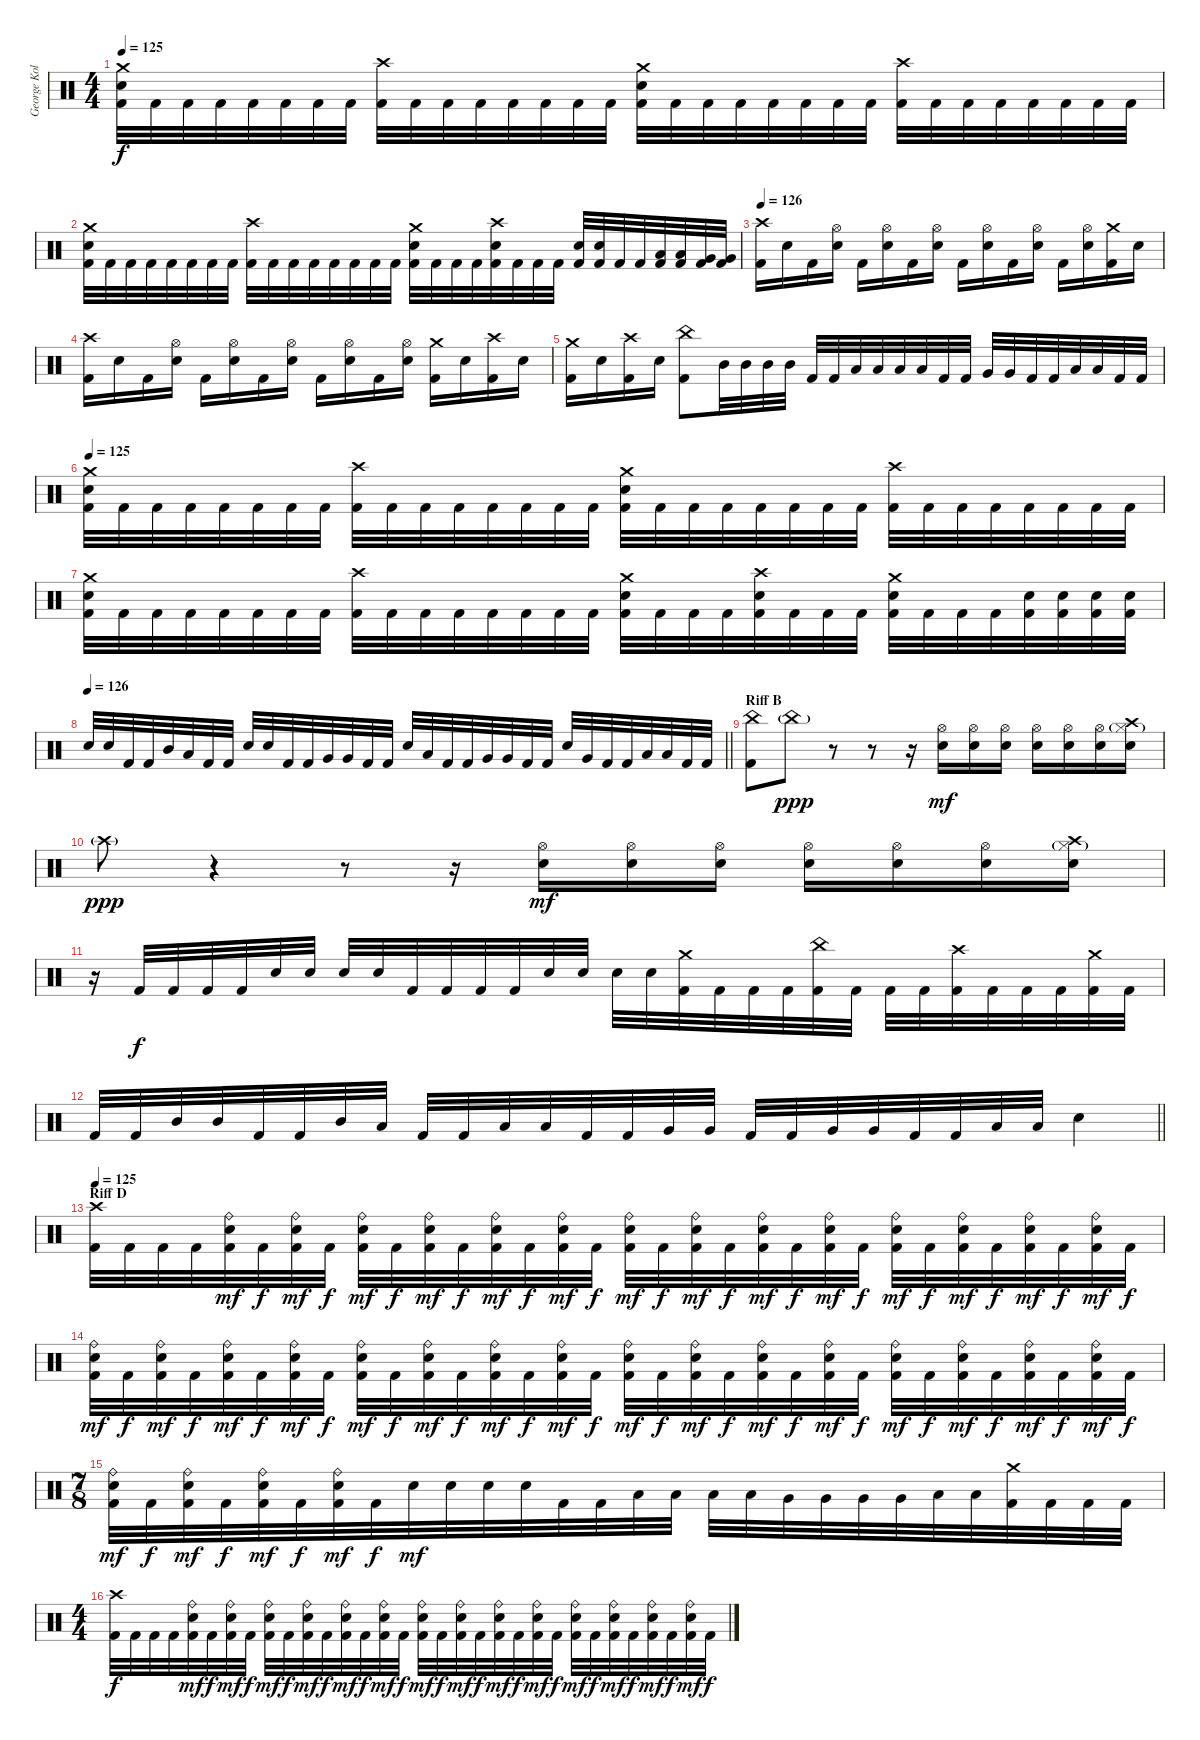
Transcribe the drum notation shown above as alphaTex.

\track ("George Kollias" "George Kol") {instrument percussion}
\staff {score}
\articulation defaults
\ts (4 4)
\tempo 125
\clef neutral
\ks c
("Crash medium (hit)" "Electric Snare (hit)" "Kick (hit) 2").32{dy f} "Kick (hit) 2".32 "Kick (hit) 2".32 "Kick (hit) 2".32 "Kick (hit) 2".32 "Kick (hit) 2".32 "Kick (hit) 2".32 "Kick (hit) 2".32 ("Crash high (hit)" "Kick (hit) 2").32 "Kick (hit) 2".32 "Kick (hit) 2".32 "Kick (hit) 2".32 "Kick (hit) 2".32 "Kick (hit) 2".32 "Kick (hit) 2".32 "Kick (hit) 2".32 ("Crash medium (hit)" "Electric Snare (hit)" "Kick (hit) 2").32 "Kick (hit) 2".32 "Kick (hit) 2".32 "Kick (hit) 2".32 "Kick (hit) 2".32 "Kick (hit) 2".32 "Kick (hit) 2".32 "Kick (hit) 2".32 ("Crash high (hit)" "Kick (hit) 2").32 "Kick (hit) 2".32 "Kick (hit) 2".32 "Kick (hit) 2".32 "Kick (hit) 2".32 "Kick (hit) 2".32 "Kick (hit) 2".32 "Kick (hit) 2".32 |
("Crash medium (hit)" "Electric Snare (hit)" "Kick (hit) 2").32 "Kick (hit) 2".32 "Kick (hit) 2".32 "Kick (hit) 2".32 "Kick (hit) 2".32 "Kick (hit) 2".32 "Kick (hit) 2".32 "Kick (hit) 2".32 ("Crash high (hit)" "Kick (hit) 2").32 "Kick (hit) 2".32 "Kick (hit) 2".32 "Kick (hit) 2".32 "Kick (hit) 2".32 "Kick (hit) 2".32 "Kick (hit) 2".32 "Kick (hit) 2".32 ("Crash medium (hit)" "Electric Snare (hit)" "Kick (hit) 2").32 "Kick (hit) 2".32 "Kick (hit) 2".32 "Kick (hit) 2".32 ("Crash high (hit)" "Electric Snare (hit)" "Kick (hit) 2").32 "Kick (hit) 2".32 "Kick (hit) 2".32 "Kick (hit) 2".32 ("Electric Snare (hit)" "Kick (hit) 2").32 ("Electric Snare (hit)" "Kick (hit) 2").32 "Kick (hit) 2".32 "Kick (hit) 2".32 ("Low Tom (hit)" "Kick (hit) 2").32 ("Low Tom (hit)" "Kick (hit) 2").32 ("Very Low Tom (hit)" "Kick (hit) 2").32 ("Very Low Tom (hit)" "Kick (hit) 2").32 |
\tempo 126
("Crash high (hit)" "Kick (hit) 2").16 "Electric Snare (hit)".16 "Kick (hit) 2".16 ("Hi-Hat (open)" "Electric Snare (hit)").16 "Kick (hit) 2".16 ("Hi-Hat (open)" "Electric Snare (hit)").16 "Kick (hit) 2".16 ("Hi-Hat (open)" "Electric Snare (hit)").16 "Kick (hit) 2".16 ("Hi-Hat (open)" "Electric Snare (hit)").16 "Kick (hit) 2".16 ("Hi-Hat (open)" "Electric Snare (hit)").16 "Kick (hit) 2".16 ("Hi-Hat (open)" "Electric Snare (hit)").16 ("Crash medium (hit)" "Kick (hit) 2").16 "Electric Snare (hit)".16 |
("Crash high (hit)" "Kick (hit) 2").16 "Electric Snare (hit)".16 "Kick (hit) 2".16 ("Hi-Hat (open)" "Electric Snare (hit)").16 "Kick (hit) 2".16 ("Hi-Hat (open)" "Electric Snare (hit)").16 "Kick (hit) 2".16 ("Hi-Hat (open)" "Electric Snare (hit)").16 "Kick (hit) 2".16 ("Hi-Hat (open)" "Electric Snare (hit)").16 "Kick (hit) 2".16 ("Hi-Hat (open)" "Electric Snare (hit)").16 ("Crash medium (hit)" "Kick (hit) 2").16 "Electric Snare (hit)".16 ("Crash high (hit)" "Kick (hit) 2").16 "Electric Snare (hit)".16 |
("Crash medium (hit)" "Kick (hit) 2").16 "Electric Snare (hit)".16 ("Crash high (hit)" "Kick (hit) 2").16 "Electric Snare (hit)".16 ("China (hit)" "Kick (hit) 2").8 "Mid Tom (hit)".32 "Mid Tom (hit)".32 "Mid Tom (hit)".32 "Mid Tom (hit)".32 "Kick (hit) 2".32 "Kick (hit) 2".32 "Low Tom (hit)".32 "Low Tom (hit)".32 "Low Tom (hit)".32 "Low Tom (hit)".32 "Kick (hit) 2".32 "Kick (hit) 2".32 "Very Low Tom (hit)".32 "Very Low Tom (hit)".32 "Kick (hit) 2".32 "Kick (hit) 2".32 "Low Floor Tom (hit)".32 "Low Floor Tom (hit)".32 "Kick (hit) 2".32 "Kick (hit) 2".32 |
\tempo 125
("Crash medium (hit)" "Electric Snare (hit)" "Kick (hit) 2").32 "Kick (hit) 2".32 "Kick (hit) 2".32 "Kick (hit) 2".32 "Kick (hit) 2".32 "Kick (hit) 2".32 "Kick (hit) 2".32 "Kick (hit) 2".32 ("Crash high (hit)" "Kick (hit) 2").32 "Kick (hit) 2".32 "Kick (hit) 2".32 "Kick (hit) 2".32 "Kick (hit) 2".32 "Kick (hit) 2".32 "Kick (hit) 2".32 "Kick (hit) 2".32 ("Crash medium (hit)" "Electric Snare (hit)" "Kick (hit) 2").32 "Kick (hit) 2".32 "Kick (hit) 2".32 "Kick (hit) 2".32 "Kick (hit) 2".32 "Kick (hit) 2".32 "Kick (hit) 2".32 "Kick (hit) 2".32 ("Crash high (hit)" "Kick (hit) 2").32 "Kick (hit) 2".32 "Kick (hit) 2".32 "Kick (hit) 2".32 "Kick (hit) 2".32 "Kick (hit) 2".32 "Kick (hit) 2".32 "Kick (hit) 2".32 |
("Crash medium (hit)" "Electric Snare (hit)" "Kick (hit) 2").32 "Kick (hit) 2".32 "Kick (hit) 2".32 "Kick (hit) 2".32 "Kick (hit) 2".32 "Kick (hit) 2".32 "Kick (hit) 2".32 "Kick (hit) 2".32 ("Crash high (hit)" "Kick (hit) 2").32 "Kick (hit) 2".32 "Kick (hit) 2".32 "Kick (hit) 2".32 "Kick (hit) 2".32 "Kick (hit) 2".32 "Kick (hit) 2".32 "Kick (hit) 2".32 ("Crash medium (hit)" "Electric Snare (hit)" "Kick (hit) 2").32 "Kick (hit) 2".32 "Kick (hit) 2".32 "Kick (hit) 2".32 ("Crash high (hit)" "Electric Snare (hit)" "Kick (hit) 2").32 "Kick (hit) 2".32 "Kick (hit) 2".32 "Kick (hit) 2".32 ("Crash medium (hit)" "Electric Snare (hit)" "Kick (hit) 2").32 "Kick (hit) 2".32 "Kick (hit) 2".32 "Kick (hit) 2".32 ("Electric Snare (hit)" "Kick (hit) 2").32 ("Electric Snare (hit)" "Kick (hit) 2").32 ("Electric Snare (hit)" "Kick (hit) 2").32 ("Electric Snare (hit)" "Kick (hit) 2").32 |
\tempo 126
\barLineRight lightlight "Electric Snare (hit)".32 "Electric Snare (hit)".32 "Kick (hit) 2".32 "Kick (hit) 2".32 "Mid Tom (hit)".32 "Low Tom (hit)".32 "Kick (hit) 2".32 "Kick (hit) 2".32 "Electric Snare (hit)".32 "Electric Snare (hit)".32 "Kick (hit) 2".32 "Kick (hit) 2".32 "Very Low Tom (hit)".32 "Very Low Tom (hit)".32 "Kick (hit) 2".32 "Kick (hit) 2".32 "Electric Snare (hit)".32 "Low Tom (hit)".32 "Kick (hit) 2".32 "Kick (hit) 2".32 "Very Low Tom (hit)".32 "Very Low Tom (hit)".32 "Kick (hit) 2".32 "Kick (hit) 2".32 "Electric Snare (hit)".32 "Very Low Tom (hit)".32 "Kick (hit) 2".32 "Kick (hit) 2".32 "Low Floor Tom (hit)".32 "Low Floor Tom (hit)".32 "Kick (hit) 2".32 "Kick (hit) 2".32
|
\section ("" "Riff B")
("China (hit)" "Kick (hit) 2").8 "China (hit)"{g}.8{dy ppp} r.8 r.8 r.16 ("Hi-Hat (open)" "Electric Snare (hit)").16{dy mf} ("Hi-Hat (open)" "Electric Snare (hit)").16 ("Hi-Hat (open)" "Electric Snare (hit)").16 ("Hi-Hat (open)" "Electric Snare (hit)").16 ("Hi-Hat (open)" "Electric Snare (hit)").16 ("Hi-Hat (open)" "Electric Snare (hit)").16 ("Crash high (hit)" "Hi-Hat (closed)"{g} "Electric Snare (hit)").16 |
"Crash high (hit)"{g}.8{dy ppp} r.4 r.8 r.16 ("Hi-Hat (open)" "Electric Snare (hit)").16{dy mf} ("Hi-Hat (open)" "Electric Snare (hit)").16 ("Hi-Hat (open)" "Electric Snare (hit)").16 ("Hi-Hat (open)" "Electric Snare (hit)").16 ("Hi-Hat (open)" "Electric Snare (hit)").16 ("Hi-Hat (open)" "Electric Snare (hit)").16 ("Crash high (hit)" "Hi-Hat (closed)"{g} "Electric Snare (hit)").16 |
r.16 "Kick (hit) 2".32{dy f} "Kick (hit) 2".32 "Kick (hit) 2".32 "Kick (hit) 2".32 "Electric Snare (hit)".32 "Electric Snare (hit)".32 "Electric Snare (hit)".32 "Electric Snare (hit)".32 "Kick (hit) 2".32 "Kick (hit) 2".32 "Kick (hit) 2".32 "Kick (hit) 2".32 "Electric Snare (hit)".32 "Electric Snare (hit)".32 "Electric Snare (hit)".32 "Electric Snare (hit)".32 ("Crash medium (hit)" "Kick (hit) 2").32 "Kick (hit) 2".32 "Kick (hit) 2".32 "Kick (hit) 2".32 ("China (hit)" "Kick (hit) 2").32 "Kick (hit) 2".32 "Kick (hit) 2".32 "Kick (hit) 2".32 ("Crash high (hit)" "Kick (hit) 2").32 "Kick (hit) 2".32 "Kick (hit) 2".32 "Kick (hit) 2".32 ("Crash medium (hit)" "Kick (hit) 2").32 "Kick (hit) 2".32 |
\barLineRight lightlight "Kick (hit) 2".32 "Kick (hit) 2".32 "Mid Tom (hit)".32 "Mid Tom (hit)".32 "Kick (hit) 2".32 "Kick (hit) 2".32 "Mid Tom (hit)".32 "Low Tom (hit)".32 "Kick (hit) 2".32 "Kick (hit) 2".32 "Low Tom (hit)".32 "Low Tom (hit)".32 "Kick (hit) 2".32 "Kick (hit) 2".32 "Very Low Tom (hit)".32 "Very Low Tom (hit)".32 "Kick (hit) 2".32 "Kick (hit) 2".32 "Very Low Tom (hit)".32 "Very Low Tom (hit)".32 "Kick (hit) 2".32 "Kick (hit) 2".32 "Low Floor Tom (hit)".32 "Low Floor Tom (hit)".32 "Electric Snare (hit)".4
|
\section ("" "Riff D")
\tempo 125
("Crash high (hit)" "Kick (hit) 2").32 "Kick (hit) 2".32 "Kick (hit) 2".32 "Kick (hit) 2".32 ("Ride (bell)" "Electric Snare (hit)" "Kick (hit) 2").32{dy mf} "Kick (hit) 2".32{dy f} ("Ride (bell)" "Electric Snare (hit)" "Kick (hit) 2").32{dy mf} "Kick (hit) 2".32{dy f} ("Ride (bell)" "Electric Snare (hit)" "Kick (hit) 2").32{dy mf} "Kick (hit) 2".32{dy f} ("Ride (bell)" "Electric Snare (hit)" "Kick (hit) 2").32{dy mf} "Kick (hit) 2".32{dy f} ("Ride (bell)" "Electric Snare (hit)" "Kick (hit) 2").32{dy mf} "Kick (hit) 2".32{dy f} ("Ride (bell)" "Electric Snare (hit)" "Kick (hit) 2").32{dy mf} "Kick (hit) 2".32{dy f} ("Ride (bell)" "Electric Snare (hit)" "Kick (hit) 2").32{dy mf} "Kick (hit) 2".32{dy f} ("Ride (bell)" "Electric Snare (hit)" "Kick (hit) 2").32{dy mf} "Kick (hit) 2".32{dy f} ("Ride (bell)" "Electric Snare (hit)" "Kick (hit) 2").32{dy mf} "Kick (hit) 2".32{dy f} ("Ride (bell)" "Electric Snare (hit)" "Kick (hit) 2").32{dy mf} "Kick (hit) 2".32{dy f} ("Ride (bell)" "Electric Snare (hit)" "Kick (hit) 2").32{dy mf} "Kick (hit) 2".32{dy f} ("Ride (bell)" "Electric Snare (hit)" "Kick (hit) 2").32{dy mf} "Kick (hit) 2".32{dy f} ("Ride (bell)" "Electric Snare (hit)" "Kick (hit) 2").32{dy mf} "Kick (hit) 2".32{dy f} ("Ride (bell)" "Electric Snare (hit)" "Kick (hit) 2").32{dy mf} "Kick (hit) 2".32{dy f} |
("Ride (bell)" "Electric Snare (hit)" "Kick (hit) 2").32{dy mf} "Kick (hit) 2".32{dy f} ("Ride (bell)" "Electric Snare (hit)" "Kick (hit) 2").32{dy mf} "Kick (hit) 2".32{dy f} ("Ride (bell)" "Electric Snare (hit)" "Kick (hit) 2").32{dy mf} "Kick (hit) 2".32{dy f} ("Ride (bell)" "Electric Snare (hit)" "Kick (hit) 2").32{dy mf} "Kick (hit) 2".32{dy f} ("Ride (bell)" "Electric Snare (hit)" "Kick (hit) 2").32{dy mf} "Kick (hit) 2".32{dy f} ("Ride (bell)" "Electric Snare (hit)" "Kick (hit) 2").32{dy mf} "Kick (hit) 2".32{dy f} ("Ride (bell)" "Electric Snare (hit)" "Kick (hit) 2").32{dy mf} "Kick (hit) 2".32{dy f} ("Ride (bell)" "Electric Snare (hit)" "Kick (hit) 2").32{dy mf} "Kick (hit) 2".32{dy f} ("Ride (bell)" "Electric Snare (hit)" "Kick (hit) 2").32{dy mf} "Kick (hit) 2".32{dy f} ("Ride (bell)" "Electric Snare (hit)" "Kick (hit) 2").32{dy mf} "Kick (hit) 2".32{dy f} ("Ride (bell)" "Electric Snare (hit)" "Kick (hit) 2").32{dy mf} "Kick (hit) 2".32{dy f} ("Ride (bell)" "Electric Snare (hit)" "Kick (hit) 2").32{dy mf} "Kick (hit) 2".32{dy f} ("Ride (bell)" "Electric Snare (hit)" "Kick (hit) 2").32{dy mf} "Kick (hit) 2".32{dy f} ("Ride (bell)" "Electric Snare (hit)" "Kick (hit) 2").32{dy mf} "Kick (hit) 2".32{dy f} ("Ride (bell)" "Electric Snare (hit)" "Kick (hit) 2").32{dy mf} "Kick (hit) 2".32{dy f} ("Ride (bell)" "Electric Snare (hit)" "Kick (hit) 2").32{dy mf} "Kick (hit) 2".32{dy f} |
\ts (7 8)
("Ride (bell)" "Electric Snare (hit)" "Kick (hit) 2").32{dy mf} "Kick (hit) 2".32{dy f} ("Ride (bell)" "Electric Snare (hit)" "Kick (hit) 2").32{dy mf} "Kick (hit) 2".32{dy f} ("Ride (bell)" "Electric Snare (hit)" "Kick (hit) 2").32{dy mf} "Kick (hit) 2".32{dy f} ("Ride (bell)" "Electric Snare (hit)" "Kick (hit) 2").32{dy mf} "Kick (hit) 2".32{dy f} "Electric Snare (hit)".32{dy mf} "Electric Snare (hit)".32 "Electric Snare (hit)".32 "Electric Snare (hit)".32 "Kick (hit) 2".32 "Kick (hit) 2".32 "Low Tom (hit)".32 "Low Tom (hit)".32 "Low Tom (hit)".32 "Low Tom (hit)".32 "Very Low Tom (hit)".32 "Very Low Tom (hit)".32 "Very Low Tom (hit)".32 "Very Low Tom (hit)".32 "Low Floor Tom (hit)".32 "Low Floor Tom (hit)".32 ("Crash medium (hit)" "Kick (hit) 2").32 "Kick (hit) 2".32 "Kick (hit) 2".32 "Kick (hit) 2".32 |
\ts (4 4)
("Crash high (hit)" "Kick (hit) 2").32{dy f} "Kick (hit) 2".32 "Kick (hit) 2".32 "Kick (hit) 2".32 ("Ride (bell)" "Electric Snare (hit)" "Kick (hit) 2").32{dy mf} "Kick (hit) 2".32{dy f} ("Ride (bell)" "Electric Snare (hit)" "Kick (hit) 2").32{dy mf} "Kick (hit) 2".32{dy f} ("Ride (bell)" "Electric Snare (hit)" "Kick (hit) 2").32{dy mf} "Kick (hit) 2".32{dy f} ("Ride (bell)" "Electric Snare (hit)" "Kick (hit) 2").32{dy mf} "Kick (hit) 2".32{dy f} ("Ride (bell)" "Electric Snare (hit)" "Kick (hit) 2").32{dy mf} "Kick (hit) 2".32{dy f} ("Ride (bell)" "Electric Snare (hit)" "Kick (hit) 2").32{dy mf} "Kick (hit) 2".32{dy f} ("Ride (bell)" "Electric Snare (hit)" "Kick (hit) 2").32{dy mf} "Kick (hit) 2".32{dy f} ("Ride (bell)" "Electric Snare (hit)" "Kick (hit) 2").32{dy mf} "Kick (hit) 2".32{dy f} ("Ride (bell)" "Electric Snare (hit)" "Kick (hit) 2").32{dy mf} "Kick (hit) 2".32{dy f} ("Ride (bell)" "Electric Snare (hit)" "Kick (hit) 2").32{dy mf} "Kick (hit) 2".32{dy f} ("Ride (bell)" "Electric Snare (hit)" "Kick (hit) 2").32{dy mf} "Kick (hit) 2".32{dy f} ("Ride (bell)" "Electric Snare (hit)" "Kick (hit) 2").32{dy mf} "Kick (hit) 2".32{dy f} ("Ride (bell)" "Electric Snare (hit)" "Kick (hit) 2").32{dy mf} "Kick (hit) 2".32{dy f} ("Ride (bell)" "Electric Snare (hit)" "Kick (hit) 2").32{dy mf} "Kick (hit) 2".32{dy f}
